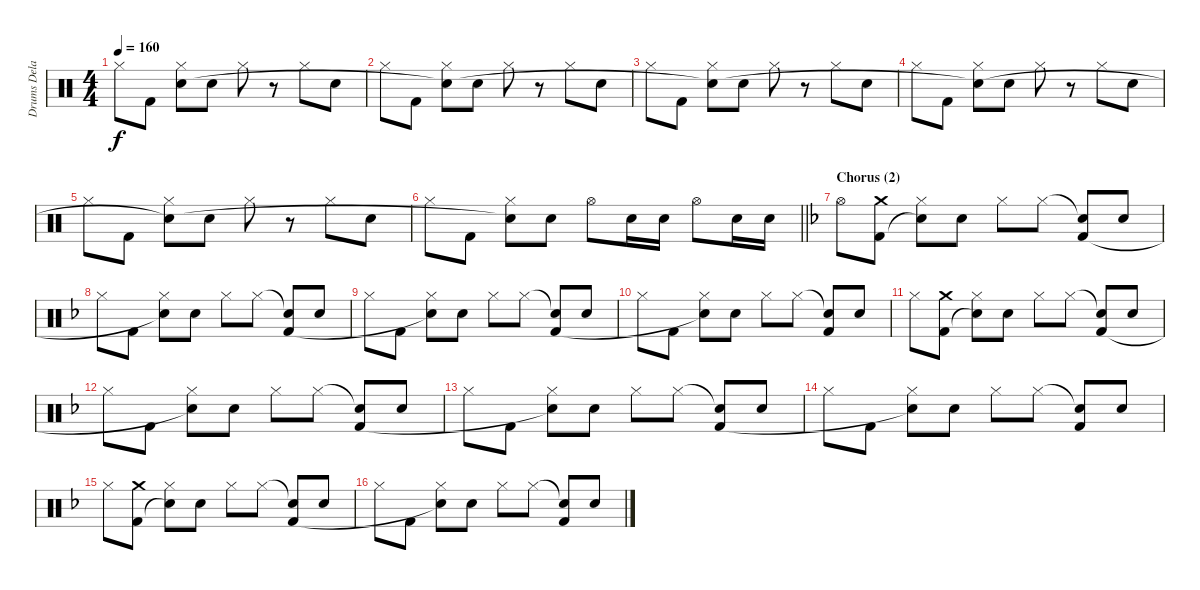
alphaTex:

\track ("Drums Delay" "Drums Dela") {instrument percussion}
\staff {score}
\articulation defaults
\ts (4 4)
\tempo 160
\clef neutral
\ks c "Hi-Hat (closed)".8{dy f} "Kick (hit) 2".8
("Hi-Hat (closed)" "Snare (hit)"{t}).8 "Electric Snare (hit)".8 "Hi-Hat (closed)".8 r.8 "Hi-Hat (closed)".8 "Electric Snare (hit)".8 |
"Hi-Hat (closed)".8 "Kick (hit) 2".8 ("Hi-Hat (closed)" "Snare (hit)"{t}).8 "Electric Snare (hit)".8 "Hi-Hat (closed)".8 r.8 "Hi-Hat (closed)".8 "Electric Snare (hit)".8 |
"Hi-Hat (closed)".8 "Kick (hit) 2".8 ("Hi-Hat (closed)" "Snare (hit)"{t}).8 "Electric Snare (hit)".8 "Hi-Hat (closed)".8 r.8 "Hi-Hat (closed)".8 "Electric Snare (hit)".8 |
"Hi-Hat (closed)".8 "Kick (hit) 2".8 ("Hi-Hat (closed)" "Snare (hit)"{t}).8 "Electric Snare (hit)".8 "Hi-Hat (closed)".8 r.8 "Hi-Hat (closed)".8 "Electric Snare (hit)".8 |
"Hi-Hat (closed)".8 "Kick (hit) 2".8 ("Hi-Hat (closed)" "Snare (hit)"{t}).8 "Electric Snare (hit)".8 "Hi-Hat (closed)".8 r.8 "Hi-Hat (closed)".8 "Electric Snare (hit)".8 |
\barLineRight lightlight "Hi-Hat (closed)".8 "Kick (hit) 2".8
("Hi-Hat (closed)" "Snare (hit)"{t}).8 "Electric Snare (hit)".8 "Hi-Hat (open)".8 "Electric Snare (hit)".16 "Electric Snare (hit)".16 "Hi-Hat (open)".8 "Electric Snare (hit)".16 "Electric Snare (hit)".16 |
\section ("" "Chorus (2)")
\ks f "Hi-Hat (open)".8
("Crash medium (hit)" "Kick (hit) 2").8 ("Hi-Hat (closed)" "Snare (hit)"{t}).8 "Electric Snare (hit)".8 "Hi-Hat (closed)".8 "Hi-Hat (closed)".8 ("Snare (hit)"{t} "Kick (hit) 2").8 "Electric Snare (hit)".8 |
"Hi-Hat (closed)".8 "Kick (hit) 2".8 ("Hi-Hat (closed)" "Snare (hit)"{t}).8 "Electric Snare (hit)".8 "Hi-Hat (closed)".8 "Hi-Hat (closed)".8 ("Snare (hit)"{t} "Kick (hit) 2").8 "Electric Snare (hit)".8 |
"Hi-Hat (closed)".8 "Kick (hit) 2".8 ("Hi-Hat (closed)" "Snare (hit)"{t}).8 "Electric Snare (hit)".8 "Hi-Hat (closed)".8 "Hi-Hat (closed)".8 ("Snare (hit)"{t} "Kick (hit) 2").8 "Electric Snare (hit)".8 |
"Hi-Hat (closed)".8 "Kick (hit) 2".8 ("Hi-Hat (closed)" "Snare (hit)"{t}).8 "Electric Snare (hit)".8 "Hi-Hat (closed)".8 "Hi-Hat (closed)".8 ("Snare (hit)"{t} "Kick (hit) 2").8 "Electric Snare (hit)".8 |
"Hi-Hat (closed)".8 ("Crash medium (hit)" "Kick (hit) 2").8 ("Hi-Hat (closed)" "Snare (hit)"{t}).8 "Electric Snare (hit)".8 "Hi-Hat (closed)".8 "Hi-Hat (closed)".8 ("Snare (hit)"{t} "Kick (hit) 2").8 "Electric Snare (hit)".8 |
"Hi-Hat (closed)".8 "Kick (hit) 2".8 ("Hi-Hat (closed)" "Snare (hit)"{t}).8 "Electric Snare (hit)".8 "Hi-Hat (closed)".8 "Hi-Hat (closed)".8 ("Snare (hit)"{t} "Kick (hit) 2").8 "Electric Snare (hit)".8 |
"Hi-Hat (closed)".8 "Kick (hit) 2".8 ("Hi-Hat (closed)" "Snare (hit)"{t}).8 "Electric Snare (hit)".8 "Hi-Hat (closed)".8 "Hi-Hat (closed)".8 ("Snare (hit)"{t} "Kick (hit) 2").8 "Electric Snare (hit)".8 |
"Hi-Hat (closed)".8 "Kick (hit) 2".8 ("Hi-Hat (closed)" "Snare (hit)"{t}).8 "Electric Snare (hit)".8 "Hi-Hat (closed)".8 "Hi-Hat (closed)".8 ("Snare (hit)"{t} "Kick (hit) 2").8 "Electric Snare (hit)".8 |
"Hi-Hat (closed)".8 ("Crash medium (hit)" "Kick (hit) 2").8 ("Hi-Hat (closed)" "Snare (hit)"{t}).8 "Electric Snare (hit)".8 "Hi-Hat (closed)".8 "Hi-Hat (closed)".8 ("Snare (hit)"{t} "Kick (hit) 2").8 "Electric Snare (hit)".8 |
"Hi-Hat (closed)".8 "Kick (hit) 2".8 ("Hi-Hat (closed)" "Snare (hit)"{t}).8 "Electric Snare (hit)".8 "Hi-Hat (closed)".8 "Hi-Hat (closed)".8 ("Snare (hit)"{t} "Kick (hit) 2").8 "Electric Snare (hit)".8
